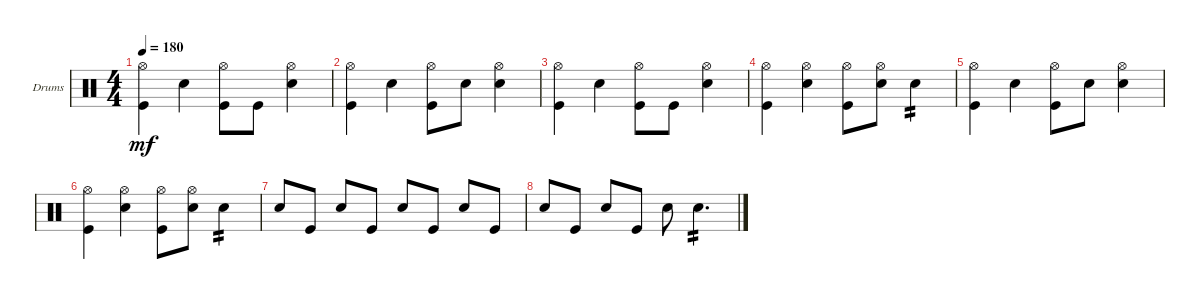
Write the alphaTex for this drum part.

\bracketExtendMode groupsimilarinstruments
\firstSystemTrackNameOrientation horizontal
\otherSystemsTrackNameOrientation horizontal
\track ("Drumkit" "Drums") {instrument percussion}
\staff {score}
\articulation defaults
\ts (4 4)
\tempo 180
\clef neutral
\scale
0.333333
\ks c
("Kick (hit)" "Hi-Hat (open)").4{dy mf} "Snare (hit) 2".4 ("Kick (hit)" "Hi-Hat (open)").8 "Kick (hit)".8 ("Snare (hit) 2" "Hi-Hat (open)").4 |
\scale
0.333333 ("Kick (hit)" "Hi-Hat (open)").4 "Snare (hit) 2".4 ("Kick (hit)" "Hi-Hat (open)").8 "Snare (hit) 2".8 ("Snare (hit) 2" "Hi-Hat (open)").4 |
\scale
0.333333 ("Kick (hit)" "Hi-Hat (open)").4 "Snare (hit) 2".4 ("Kick (hit)" "Hi-Hat (open)").8 "Kick (hit)".8 ("Snare (hit) 2" "Hi-Hat (open)").4 |
\scale
0.333333 ("Kick (hit)" "Hi-Hat (open)").4 ("Snare (hit) 2" "Hi-Hat (open)").4 ("Kick (hit)" "Hi-Hat (open)").8 ("Snare (hit) 2" "Hi-Hat (open)").8 "Snare (hit) 2".4{tp 2} |
\scale
0.333333 ("Kick (hit)" "Hi-Hat (open)").4 "Snare (hit) 2".4 ("Kick (hit)" "Hi-Hat (open)").8 "Snare (hit) 2".8 ("Snare (hit) 2" "Hi-Hat (open)").4 |
\scale
0.333333 ("Kick (hit)" "Hi-Hat (open)").4 ("Snare (hit) 2" "Hi-Hat (open)").4 ("Kick (hit)" "Hi-Hat (open)").8 ("Snare (hit) 2" "Hi-Hat (open)").8 "Snare (hit) 2".4{tp 2} |
\scale
0.333333 "Snare (hit) 2".8 "Kick (hit)".8 "Snare (hit) 2".8 "Kick (hit)".8 "Snare (hit) 2".8 "Kick (hit)".8 "Snare (hit) 2".8 "Kick (hit)".8 |
\scale
0.333333 "Snare (hit) 2".8 "Kick (hit)".8 "Snare (hit) 2".8 "Kick (hit)".8 "Snare (hit) 2".8 "Snare (hit) 2".4{d tp 2} |
\scale
0.333333 |
\scale
0.333333 |
\scale
0.333333 |
\scale
0.333333 |
\scale
0.333333 |
\scale
0.333333 |
\scale
0.333333 |
\scale
0.333333
